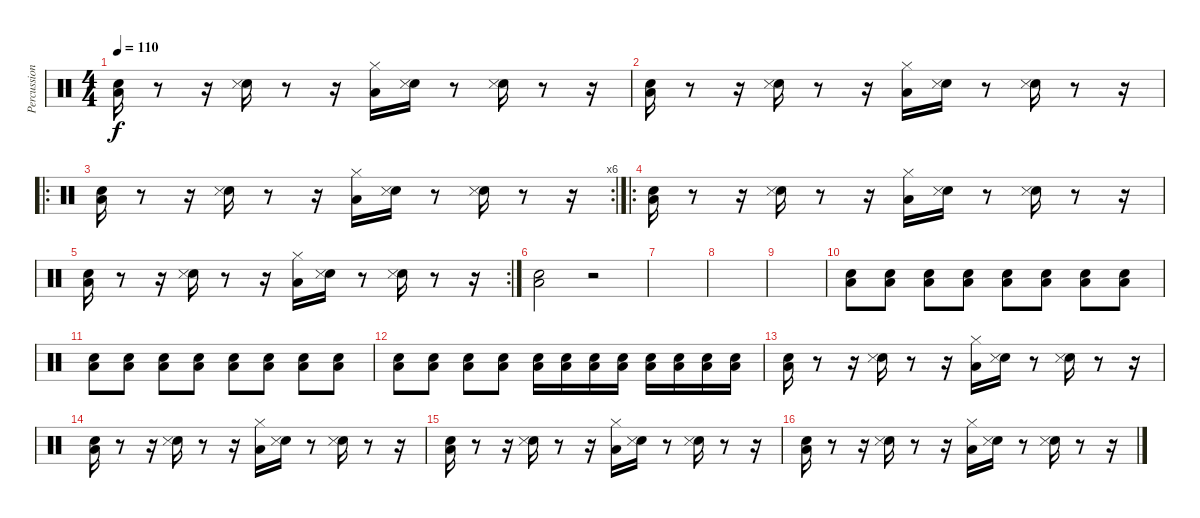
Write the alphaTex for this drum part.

\track ("Percussions" "Percussion") {instrument percussion}
\staff {score}
\articulation defaults
\ts (4 4)
\tempo 110
\clef neutral
\ks c
("Low Floor Tom (hit)" "Snare (hit) 2").16{dy f} r.8 r.16 ("Electric Snare (hit)" "Snare (side stick) 3").16 r.8 r.16 ("Low Floor Tom (hit)" "Hi-Hat (closed)").16 ("Electric Snare (hit)" "Snare (side stick) 3").16 r.8 ("Electric Snare (hit)" "Snare (side stick) 3").16 r.8 r.16 |
("Low Floor Tom (hit)" "Snare (hit) 2").16 r.8 r.16 ("Electric Snare (hit)" "Snare (side stick) 3").16 r.8 r.16 ("Low Floor Tom (hit)" "Hi-Hat (closed)").16 ("Electric Snare (hit)" "Snare (side stick) 3").16 r.8 ("Electric Snare (hit)" "Snare (side stick) 3").16 r.8 r.16 |
\ro
\rc 6
("Low Floor Tom (hit)" "Snare (hit) 2").16 r.8 r.16 ("Electric Snare (hit)" "Snare (side stick) 3").16 r.8 r.16 ("Low Floor Tom (hit)" "Hi-Hat (closed)").16 ("Electric Snare (hit)" "Snare (side stick) 3").16 r.8 ("Electric Snare (hit)" "Snare (side stick) 3").16 r.8 r.16 |
\ro
("Low Floor Tom (hit)" "Snare (hit) 2").16 r.8 r.16 ("Electric Snare (hit)" "Snare (side stick) 3").16 r.8 r.16 ("Low Floor Tom (hit)" "Hi-Hat (closed)").16 ("Electric Snare (hit)" "Snare (side stick) 3").16 r.8 ("Electric Snare (hit)" "Snare (side stick) 3").16 r.8 r.16 |
\rc 2
("Low Floor Tom (hit)" "Snare (hit) 2").16 r.8 r.16 ("Electric Snare (hit)" "Snare (side stick) 3").16 r.8 r.16 ("Low Floor Tom (hit)" "Hi-Hat (closed)").16 ("Electric Snare (hit)" "Snare (side stick) 3").16 r.8 ("Electric Snare (hit)" "Snare (side stick) 3").16 r.8 r.16 |
("Low Floor Tom (hit)" "Snare (hit) 2").2 r.2 |
|
|
|
("Snare (hit) 2" "Low Floor Tom (hit)").8 ("Snare (hit) 2" "Low Floor Tom (hit)").8 ("Snare (hit) 2" "Low Floor Tom (hit)").8 ("Snare (hit) 2" "Low Floor Tom (hit)").8 ("Snare (hit) 2" "Low Floor Tom (hit)").8 ("Snare (hit) 2" "Low Floor Tom (hit)").8 ("Snare (hit) 2" "Low Floor Tom (hit)").8 ("Snare (hit) 2" "Low Floor Tom (hit)").8 |
("Snare (hit) 2" "Low Floor Tom (hit)").8 ("Snare (hit) 2" "Low Floor Tom (hit)").8 ("Snare (hit) 2" "Low Floor Tom (hit)").8 ("Snare (hit) 2" "Low Floor Tom (hit)").8 ("Snare (hit) 2" "Low Floor Tom (hit)").8 ("Snare (hit) 2" "Low Floor Tom (hit)").8 ("Snare (hit) 2" "Low Floor Tom (hit)").8 ("Snare (hit) 2" "Low Floor Tom (hit)").8 |
("Snare (hit) 2" "Low Floor Tom (hit)").8 ("Snare (hit) 2" "Low Floor Tom (hit)").8 ("Snare (hit) 2" "Low Floor Tom (hit)").8 ("Snare (hit) 2" "Low Floor Tom (hit)").8 ("Snare (hit) 2" "Low Floor Tom (hit)").16 ("Snare (hit) 2" "Low Floor Tom (hit)").16 ("Snare (hit) 2" "Low Floor Tom (hit)").16 ("Snare (hit) 2" "Low Floor Tom (hit)").16 ("Snare (hit) 2" "Low Floor Tom (hit)").16 ("Snare (hit) 2" "Low Floor Tom (hit)").16 ("Snare (hit) 2" "Low Floor Tom (hit)").16 ("Snare (hit) 2" "Low Floor Tom (hit)").16 |
("Low Floor Tom (hit)" "Snare (hit) 2").16 r.8 r.16 ("Electric Snare (hit)" "Snare (side stick) 3").16 r.8 r.16 ("Low Floor Tom (hit)" "Hi-Hat (closed)").16 ("Electric Snare (hit)" "Snare (side stick) 3").16 r.8 ("Electric Snare (hit)" "Snare (side stick) 3").16 r.8 r.16 |
("Low Floor Tom (hit)" "Snare (hit) 2").16 r.8 r.16 ("Electric Snare (hit)" "Snare (side stick) 3").16 r.8 r.16 ("Low Floor Tom (hit)" "Hi-Hat (closed)").16 ("Electric Snare (hit)" "Snare (side stick) 3").16 r.8 ("Electric Snare (hit)" "Snare (side stick) 3").16 r.8 r.16 |
("Low Floor Tom (hit)" "Snare (hit) 2").16 r.8 r.16 ("Electric Snare (hit)" "Snare (side stick) 3").16 r.8 r.16 ("Low Floor Tom (hit)" "Hi-Hat (closed)").16 ("Electric Snare (hit)" "Snare (side stick) 3").16 r.8 ("Electric Snare (hit)" "Snare (side stick) 3").16 r.8 r.16 |
("Low Floor Tom (hit)" "Snare (hit) 2").16 r.8 r.16 ("Electric Snare (hit)" "Snare (side stick) 3").16 r.8 r.16 ("Low Floor Tom (hit)" "Hi-Hat (closed)").16 ("Electric Snare (hit)" "Snare (side stick) 3").16 r.8 ("Electric Snare (hit)" "Snare (side stick) 3").16 r.8 r.16
